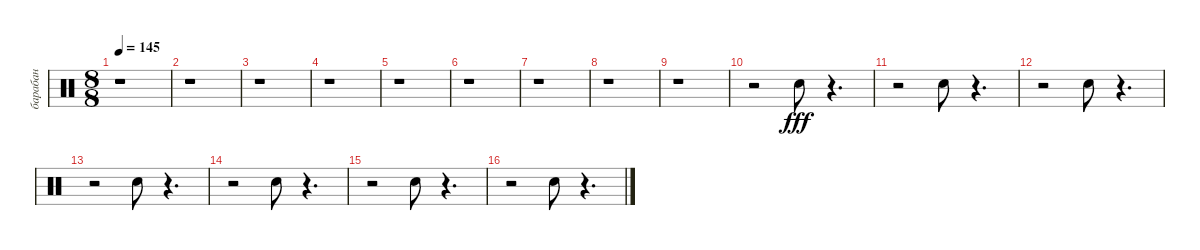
\track ("барабан" "барабан") {instrument percussion}
\staff {score}
\articulation defaults
\ts (8 8)
\tempo 145
\clef neutral
\ks c
r.1{dy fff} |
r.1 |
r.1 |
r.1 |
r.1 |
r.1 |
r.1 |
r.1 |
r.1 |
r.2 "Snare (hit) 2".8 r.4{d} |
r.2 "Snare (hit) 2".8 r.4{d} |
r.2 "Snare (hit) 2".8 r.4{d} |
r.2 "Snare (hit) 2".8 r.4{d} |
r.2 "Snare (hit) 2".8 r.4{d} |
r.2 "Snare (hit) 2".8 r.4{d} |
r.2 "Snare (hit) 2".8 r.4{d}
